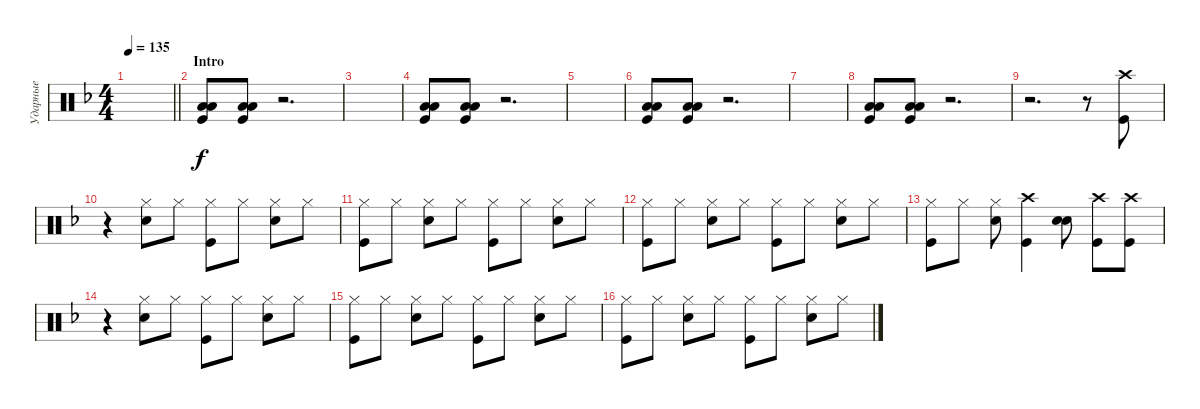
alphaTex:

\track ("Ударные" "Ударные") {instrument percussion}
\staff {score}
\articulation defaults
\ts (4 4)
\tempo 135
\clef neutral
\barLineRight lightlight
\ks dminor
|
\section ("" "Intro")
("Kick (hit)" "Low Floor Tom (hit)" "Low Floor Tom (hit)").8{bd 240} ("Kick (hit)" "Low Floor Tom (hit)" "Low Floor Tom (hit)").8{bd 240} r.2{d} |
|
("Kick (hit)" "Low Floor Tom (hit)" "Low Floor Tom (hit)").8{bd 240} ("Kick (hit)" "Low Floor Tom (hit)" "Low Floor Tom (hit)").8{bd 240} r.2{d} |
|
("Kick (hit)" "Low Floor Tom (hit)" "Low Floor Tom (hit)").8{bd 240} ("Kick (hit)" "Low Floor Tom (hit)" "Low Floor Tom (hit)").8{bd 240} r.2{d} |
|
("Kick (hit)" "Low Floor Tom (hit)" "Low Floor Tom (hit)").8{bd 240} ("Kick (hit)" "Low Floor Tom (hit)" "Low Floor Tom (hit)").8{bd 240} r.2{d} |
r.2{d} r.8 ("Kick (hit)" "Crash high (hit)").8 |
r.4 ("Snare (hit) 2" "Hi-Hat (closed)").8 "Hi-Hat (closed)".8 ("Hi-Hat (closed)" "Kick (hit)").8 "Hi-Hat (closed)".8 ("Hi-Hat (closed)" "Snare (hit) 2").8 "Hi-Hat (closed)".8 |
("Hi-Hat (closed)" "Kick (hit)").8 "Hi-Hat (closed)".8 ("Hi-Hat (closed)" "Snare (hit) 2").8 "Hi-Hat (closed)".8 ("Hi-Hat (closed)" "Kick (hit)").8 "Hi-Hat (closed)".8 ("Hi-Hat (closed)" "Snare (hit) 2").8 "Hi-Hat (closed)".8 |
("Hi-Hat (closed)" "Kick (hit)").8 "Hi-Hat (closed)".8 ("Hi-Hat (closed)" "Snare (hit) 2").8 "Hi-Hat (closed)".8 ("Hi-Hat (closed)" "Kick (hit)").8 "Hi-Hat (closed)".8 ("Hi-Hat (closed)" "Snare (hit) 2").8 "Hi-Hat (closed)".8 |
("Hi-Hat (closed)" "Kick (hit)").8 "Hi-Hat (closed)".8 ("Hi-Hat (closed)" "Snare (hit) 2").8 ("Kick (hit)" "Crash high (hit)").4 ("Snare (hit) 2" "Snare (hit) 2").8{bd 240} ("Kick (hit)" "Crash high (hit)").8 ("Kick (hit)" "Crash high (hit)").8 |
r.4 ("Hi-Hat (closed)" "Snare (hit) 2").8 "Hi-Hat (closed)".8 ("Hi-Hat (closed)" "Kick (hit)").8 "Hi-Hat (closed)".8 ("Hi-Hat (closed)" "Snare (hit) 2").8 "Hi-Hat (closed)".8 |
("Hi-Hat (closed)" "Kick (hit)").8 "Hi-Hat (closed)".8 ("Hi-Hat (closed)" "Snare (hit) 2").8 "Hi-Hat (closed)".8 ("Hi-Hat (closed)" "Kick (hit)").8 "Hi-Hat (closed)".8 ("Hi-Hat (closed)" "Snare (hit) 2").8 "Hi-Hat (closed)".8 |
("Hi-Hat (closed)" "Kick (hit)").8 "Hi-Hat (closed)".8 ("Hi-Hat (closed)" "Snare (hit) 2").8 "Hi-Hat (closed)".8 ("Hi-Hat (closed)" "Kick (hit)").8 "Hi-Hat (closed)".8 ("Hi-Hat (closed)" "Snare (hit) 2").8 "Hi-Hat (closed)".8
